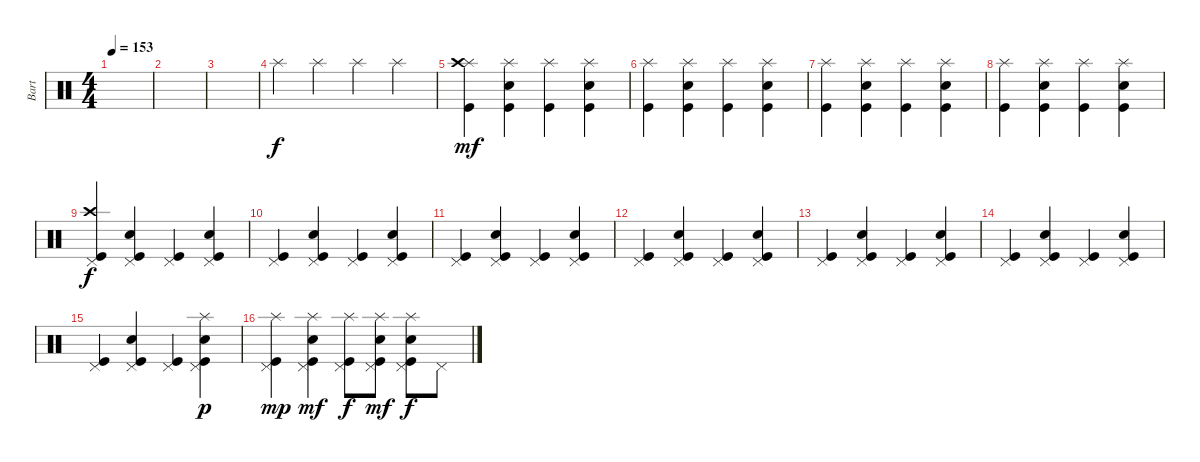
\track ("Bart" "Bart") {instrument percussion}
\staff {score}
\articulation defaults
\ts (4 4)
\tempo 153
\clef neutral
\ks c
|
|
|
"Splash (hit)".4 "Splash (hit)".4 "Splash (hit)".4 "Splash (hit)".4 |
("Kick (hit)" "Splash (hit)" "Crash high (hit)").4{dy mf} ("Kick (hit)" "Electric Snare (hit)" "Splash (hit)").4 ("Kick (hit)" "Splash (hit)").4 ("Kick (hit)" "Electric Snare (hit)" "Splash (hit)").4 |
("Kick (hit)" "Splash (hit)").4 ("Kick (hit)" "Electric Snare (hit)" "Splash (hit)").4 ("Kick (hit)" "Splash (hit)").4 ("Kick (hit)" "Electric Snare (hit)" "Splash (hit)").4 |
("Kick (hit)" "Splash (hit)").4 ("Kick (hit)" "Electric Snare (hit)" "Splash (hit)").4 ("Kick (hit)" "Splash (hit)").4 ("Kick (hit)" "Electric Snare (hit)" "Splash (hit)").4 |
("Kick (hit)" "Splash (hit)").4 ("Kick (hit)" "Electric Snare (hit)" "Splash (hit)").4 ("Kick (hit)" "Splash (hit)").4 ("Kick (hit)" "Electric Snare (hit)" "Splash (hit)").4 |
("Kick (hit)" "Pedal Hi-Hat (hit)" "Crash high (hit)").4{dy f} ("Kick (hit)" "Electric Snare (hit)" "Pedal Hi-Hat (hit)").4 ("Kick (hit)" "Pedal Hi-Hat (hit)").4 ("Kick (hit)" "Electric Snare (hit)" "Pedal Hi-Hat (hit)").4 |
("Kick (hit)" "Pedal Hi-Hat (hit)").4 ("Kick (hit)" "Electric Snare (hit)" "Pedal Hi-Hat (hit)").4 ("Kick (hit)" "Pedal Hi-Hat (hit)").4 ("Kick (hit)" "Electric Snare (hit)" "Pedal Hi-Hat (hit)").4 |
("Kick (hit)" "Pedal Hi-Hat (hit)").4 ("Kick (hit)" "Electric Snare (hit)" "Pedal Hi-Hat (hit)").4 ("Kick (hit)" "Pedal Hi-Hat (hit)").4 ("Kick (hit)" "Electric Snare (hit)" "Pedal Hi-Hat (hit)").4 |
("Kick (hit)" "Pedal Hi-Hat (hit)").4 ("Kick (hit)" "Electric Snare (hit)" "Pedal Hi-Hat (hit)").4 ("Kick (hit)" "Pedal Hi-Hat (hit)").4 ("Kick (hit)" "Electric Snare (hit)" "Pedal Hi-Hat (hit)").4 |
("Kick (hit)" "Pedal Hi-Hat (hit)").4 ("Kick (hit)" "Electric Snare (hit)" "Pedal Hi-Hat (hit)").4 ("Kick (hit)" "Pedal Hi-Hat (hit)").4 ("Kick (hit)" "Electric Snare (hit)" "Pedal Hi-Hat (hit)").4 |
("Kick (hit)" "Pedal Hi-Hat (hit)").4 ("Kick (hit)" "Electric Snare (hit)" "Pedal Hi-Hat (hit)").4 ("Kick (hit)" "Pedal Hi-Hat (hit)").4 ("Kick (hit)" "Electric Snare (hit)" "Pedal Hi-Hat (hit)").4 |
("Kick (hit)" "Pedal Hi-Hat (hit)").4 ("Kick (hit)" "Electric Snare (hit)" "Pedal Hi-Hat (hit)").4 ("Kick (hit)" "Pedal Hi-Hat (hit)").4 ("Kick (hit)" "Electric Snare (hit)" "Pedal Hi-Hat (hit)" "Splash (hit)").4{dy p} |
("Kick (hit)" "Pedal Hi-Hat (hit)" "Splash (hit)").4{dy mp} ("Kick (hit)" "Electric Snare (hit)" "Pedal Hi-Hat (hit)" "Splash (hit)").4{dy mf} ("Kick (hit)" "Pedal Hi-Hat (hit)" "Splash (hit)").8{dy f} ("Kick (hit)" "Electric Snare (hit)" "Pedal Hi-Hat (hit)" "Splash (hit)").8{dy mf} ("Kick (hit)" "Electric Snare (hit)" "Pedal Hi-Hat (hit)" "Splash (hit)").8{dy f} "Pedal Hi-Hat (hit)".8
